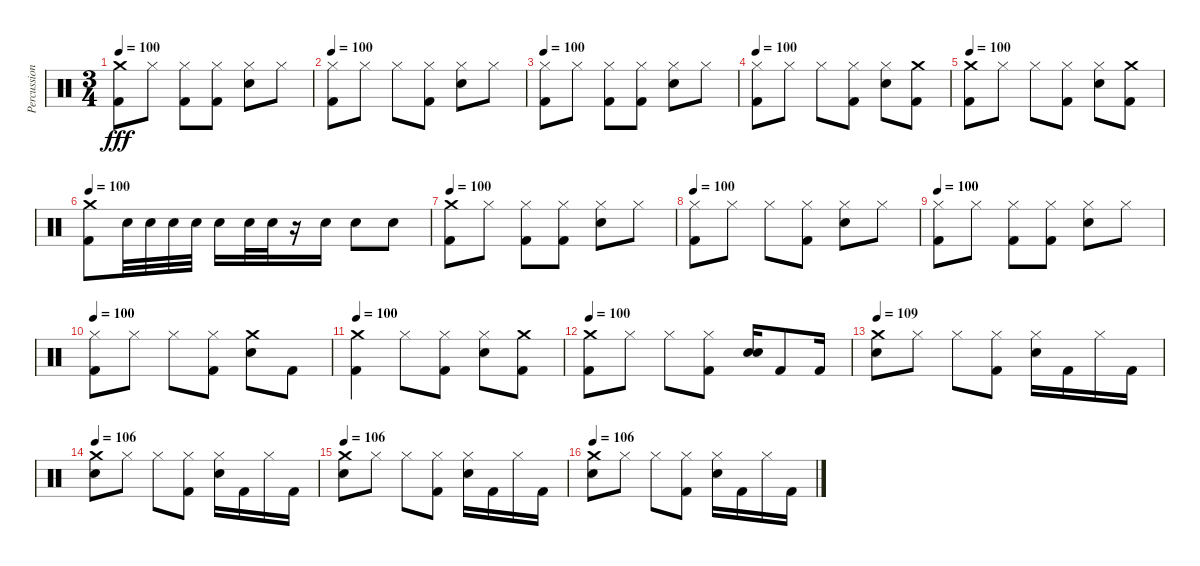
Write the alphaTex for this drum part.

\track ("Percussion" "Percussion") {instrument percussion}
\staff {score}
\articulation defaults
\ts (3 4)
\tempo 100
\clef neutral
\ks c
("Crash medium (hit)" "Kick (hit) 2").8{dy fff} "Hi-Hat (closed)".8 ("Kick (hit) 2" "Hi-Hat (closed)").8 ("Kick (hit) 2" "Hi-Hat (closed)").8 ("Snare (hit) 2" "Hi-Hat (closed)").8 "Hi-Hat (closed)".8 |
\tempo 100
("Hi-Hat (closed)" "Kick (hit) 2").8 "Hi-Hat (closed)".8 "Hi-Hat (closed)".8 ("Kick (hit) 2" "Hi-Hat (closed)").8 ("Hi-Hat (closed)" "Snare (hit) 2").8 "Hi-Hat (closed)".8 |
\tempo 100
("Hi-Hat (closed)" "Kick (hit) 2").8 "Hi-Hat (closed)".8 ("Kick (hit) 2" "Hi-Hat (closed)").8 ("Kick (hit) 2" "Hi-Hat (closed)").8 ("Hi-Hat (closed)" "Snare (hit) 2").8 "Hi-Hat (closed)".8 |
\tempo 100
("Hi-Hat (closed)" "Kick (hit) 2").8 "Hi-Hat (closed)".8 "Hi-Hat (closed)".8 ("Kick (hit) 2" "Hi-Hat (closed)").8 ("Hi-Hat (closed)" "Snare (hit) 2").8 ("Crash medium (hit)" "Kick (hit) 2").8 |
\tempo 100
("Kick (hit) 2" "Crash medium (hit)").8 "Hi-Hat (closed)".8 "Hi-Hat (closed)".8 ("Kick (hit) 2" "Hi-Hat (closed)").8 ("Snare (hit) 2" "Hi-Hat (closed)").8 ("Kick (hit) 2" "Crash medium (hit)").8 |
\tempo 100
("Kick (hit) 2" "Crash medium (hit)").8 "Snare (hit) 2".32 "Snare (hit) 2".32 "Snare (hit) 2".32 "Snare (hit) 2".32 "Snare (hit) 2".16 "Snare (hit) 2".32 "Snare (hit) 2".32 r.16 "Snare (hit) 2".16 "Snare (hit) 2".8 "Snare (hit) 2".8 |
\tempo 100
("Crash medium (hit)" "Kick (hit) 2").8 "Hi-Hat (closed)".8 ("Kick (hit) 2" "Hi-Hat (closed)").8 ("Kick (hit) 2" "Hi-Hat (closed)").8 ("Snare (hit) 2" "Hi-Hat (closed)").8 "Hi-Hat (closed)".8 |
\tempo 100
("Hi-Hat (closed)" "Kick (hit) 2").8 "Hi-Hat (closed)".8 "Hi-Hat (closed)".8 ("Kick (hit) 2" "Hi-Hat (closed)").8 ("Hi-Hat (closed)" "Snare (hit) 2").8 "Hi-Hat (closed)".8 |
\tempo 100
("Hi-Hat (closed)" "Kick (hit) 2").8 "Hi-Hat (closed)".8 ("Kick (hit) 2" "Hi-Hat (closed)").8 ("Kick (hit) 2" "Hi-Hat (closed)").8 ("Hi-Hat (closed)" "Snare (hit) 2").8 "Hi-Hat (closed)".8 |
\tempo 100
("Kick (hit) 2" "Hi-Hat (closed)").8 "Hi-Hat (closed)".8 "Hi-Hat (closed)".8 ("Kick (hit) 2" "Hi-Hat (closed)").8 ("Snare (hit) 2" "Crash medium (hit)").8 "Kick (hit) 2".8 |
\tempo 100
("Kick (hit) 2" "Crash medium (hit)").4 "Hi-Hat (closed)".8 ("Kick (hit) 2" "Hi-Hat (closed)").8 ("Hi-Hat (closed)" "Snare (hit) 2").8 ("Kick (hit) 2" "Crash medium (hit)").8 |
\tempo 100
("Kick (hit) 2" "Crash medium (hit)").8 "Hi-Hat (closed)".8 "Hi-Hat (closed)".8 ("Kick (hit) 2" "Hi-Hat (closed)").8 ("Snare (hit) 2" "Snare (hit) 2").16 "Kick (hit) 2".8 "Kick (hit) 2".16 |
\tempo 106
\tempo 109
("Snare (hit) 2" "Crash medium (hit)").8 "Hi-Hat (closed)".8 "Hi-Hat (closed)".8 ("Kick (hit) 2" "Hi-Hat (closed)").8 ("Snare (hit) 2" "Hi-Hat (closed)").16 "Kick (hit) 2".16 "Hi-Hat (closed)".16 "Kick (hit) 2".16 |
\tempo 106
("Snare (hit) 2" "Crash medium (hit)").8 "Hi-Hat (closed)".8 "Hi-Hat (closed)".8 ("Kick (hit) 2" "Hi-Hat (closed)").8 ("Snare (hit) 2" "Hi-Hat (closed)").16 "Kick (hit) 2".16 "Hi-Hat (closed)".16 "Kick (hit) 2".16 |
\tempo 106
("Snare (hit) 2" "Crash medium (hit)").8 "Hi-Hat (closed)".8 "Hi-Hat (closed)".8 ("Kick (hit) 2" "Hi-Hat (closed)").8 ("Snare (hit) 2" "Hi-Hat (closed)").16 "Kick (hit) 2".16 "Hi-Hat (closed)".16 "Kick (hit) 2".16 |
\tempo 106
("Snare (hit) 2" "Crash medium (hit)").8 "Hi-Hat (closed)".8 "Hi-Hat (closed)".8 ("Kick (hit) 2" "Hi-Hat (closed)").8 ("Snare (hit) 2" "Hi-Hat (closed)").16 "Kick (hit) 2".16 "Hi-Hat (closed)".16 "Kick (hit) 2".16
